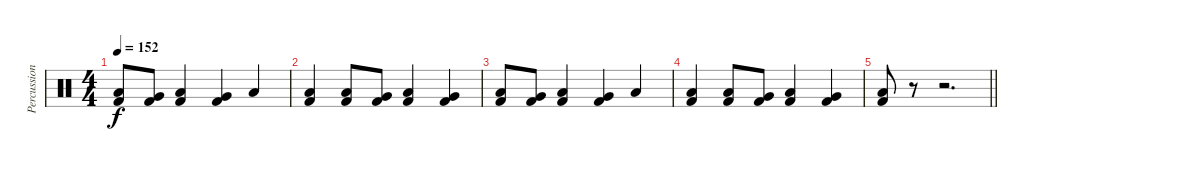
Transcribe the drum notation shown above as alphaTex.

\track ("Percussion" "Percussion") {instrument percussion}
\staff {score}
\articulation defaults
\ts (4 4)
\tempo 152
\clef neutral
\ks c
("Kick (hit) 2" "Low Tom (hit)").8{dy f} ("Kick (hit) 2" "Very Low Tom (hit)").8 ("Kick (hit) 2" "Low Floor Tom (hit)").4 ("Kick (hit) 2" "Very Low Tom (hit)").4 "Low Floor Tom (hit)".4 |
("Kick (hit) 2" "Low Tom (hit)").4 ("Kick (hit) 2" "Low Tom (hit)").8 ("Kick (hit) 2" "Very Low Tom (hit)").8 ("Kick (hit) 2" "Low Floor Tom (hit)").4 ("Kick (hit) 2" "Very Low Tom (hit)").4 |
("Kick (hit) 2" "Low Tom (hit)").8 ("Kick (hit) 2" "Very Low Tom (hit)").8 ("Kick (hit) 2" "Low Floor Tom (hit)").4 ("Kick (hit) 2" "Very Low Tom (hit)").4 "Low Floor Tom (hit)".4 |
("Kick (hit) 2" "Low Tom (hit)").4 ("Kick (hit) 2" "Low Tom (hit)").8 ("Kick (hit) 2" "Very Low Tom (hit)").8 ("Kick (hit) 2" "Low Floor Tom (hit)").4 ("Kick (hit) 2" "Very Low Tom (hit)").4 |
\barLineRight lightlight
("Kick (hit) 2" "Low Tom (hit)").8 r.8 r.2{d}
